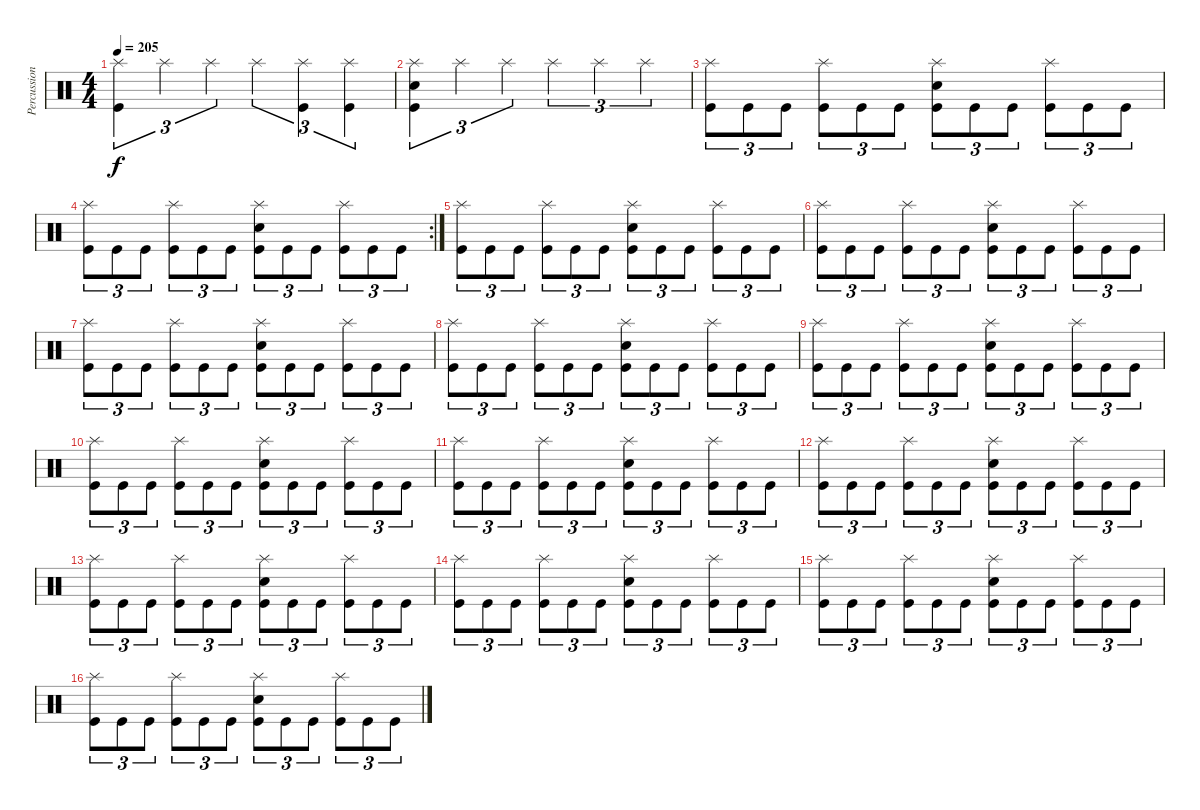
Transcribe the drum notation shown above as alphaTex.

\track ("Percussion" "Percussion") {instrument percussion}
\staff {score}
\articulation defaults
\ts (4 4)
\tempo 205
\clef neutral
\ks c
("Splash (hit)" "Kick (hit)").4{tu (3 2) dy f} "Splash (hit)".4{tu (3 2)} "Splash (hit)".4{tu (3 2)} "Splash (hit)".4{tu (3 2)} ("Splash (hit)" "Kick (hit)").4{tu (3 2)} ("Splash (hit)" "Kick (hit)").4{tu (3 2)} |
("Splash (hit)" "Snare (hit) 2" "Kick (hit)").4{tu (3 2)} "Splash (hit)".4{tu (3 2)} "Splash (hit)".4{tu (3 2)} "Splash (hit)".4{tu (3 2)} "Splash (hit)".4{tu (3 2)} "Splash (hit)".4{tu (3 2)} |
("Splash (hit)" "Kick (hit)").8{tu (3 2)} "Kick (hit)".8{tu (3 2)} "Kick (hit)".8{tu (3 2)} ("Splash (hit)" "Kick (hit)").8{tu (3 2)} "Kick (hit)".8{tu (3 2)} "Kick (hit)".8{tu (3 2)} ("Splash (hit)" "Snare (hit) 2" "Kick (hit)").8{tu (3 2)} "Kick (hit)".8{tu (3 2)} "Kick (hit)".8{tu (3 2)} ("Splash (hit)" "Kick (hit)").8{tu (3 2)} "Kick (hit)".8{tu (3 2)} "Kick (hit)".8{tu (3 2)} |
\rc 2
("Splash (hit)" "Kick (hit)").8{tu (3 2)} "Kick (hit)".8{tu (3 2)} "Kick (hit)".8{tu (3 2)} ("Splash (hit)" "Kick (hit)").8{tu (3 2)} "Kick (hit)".8{tu (3 2)} "Kick (hit)".8{tu (3 2)} ("Splash (hit)" "Snare (hit) 2" "Kick (hit)").8{tu (3 2)} "Kick (hit)".8{tu (3 2)} "Kick (hit)".8{tu (3 2)} ("Splash (hit)" "Kick (hit)").8{tu (3 2)} "Kick (hit)".8{tu (3 2)} "Kick (hit)".8{tu (3 2)} |
("Splash (hit)" "Kick (hit)").8{tu (3 2)} "Kick (hit)".8{tu (3 2)} "Kick (hit)".8{tu (3 2)} ("Splash (hit)" "Kick (hit)").8{tu (3 2)} "Kick (hit)".8{tu (3 2)} "Kick (hit)".8{tu (3 2)} ("Splash (hit)" "Snare (hit) 2" "Kick (hit)").8{tu (3 2)} "Kick (hit)".8{tu (3 2)} "Kick (hit)".8{tu (3 2)} ("Splash (hit)" "Kick (hit)").8{tu (3 2)} "Kick (hit)".8{tu (3 2)} "Kick (hit)".8{tu (3 2)} |
("Splash (hit)" "Kick (hit)").8{tu (3 2)} "Kick (hit)".8{tu (3 2)} "Kick (hit)".8{tu (3 2)} ("Splash (hit)" "Kick (hit)").8{tu (3 2)} "Kick (hit)".8{tu (3 2)} "Kick (hit)".8{tu (3 2)} ("Splash (hit)" "Snare (hit) 2" "Kick (hit)").8{tu (3 2)} "Kick (hit)".8{tu (3 2)} "Kick (hit)".8{tu (3 2)} ("Splash (hit)" "Kick (hit)").8{tu (3 2)} "Kick (hit)".8{tu (3 2)} "Kick (hit)".8{tu (3 2)} |
("Splash (hit)" "Kick (hit)").8{tu (3 2)} "Kick (hit)".8{tu (3 2)} "Kick (hit)".8{tu (3 2)} ("Splash (hit)" "Kick (hit)").8{tu (3 2)} "Kick (hit)".8{tu (3 2)} "Kick (hit)".8{tu (3 2)} ("Splash (hit)" "Snare (hit) 2" "Kick (hit)").8{tu (3 2)} "Kick (hit)".8{tu (3 2)} "Kick (hit)".8{tu (3 2)} ("Splash (hit)" "Kick (hit)").8{tu (3 2)} "Kick (hit)".8{tu (3 2)} "Kick (hit)".8{tu (3 2)} |
("Splash (hit)" "Kick (hit)").8{tu (3 2)} "Kick (hit)".8{tu (3 2)} "Kick (hit)".8{tu (3 2)} ("Splash (hit)" "Kick (hit)").8{tu (3 2)} "Kick (hit)".8{tu (3 2)} "Kick (hit)".8{tu (3 2)} ("Splash (hit)" "Snare (hit) 2" "Kick (hit)").8{tu (3 2)} "Kick (hit)".8{tu (3 2)} "Kick (hit)".8{tu (3 2)} ("Splash (hit)" "Kick (hit)").8{tu (3 2)} "Kick (hit)".8{tu (3 2)} "Kick (hit)".8{tu (3 2)} |
("Splash (hit)" "Kick (hit)").8{tu (3 2)} "Kick (hit)".8{tu (3 2)} "Kick (hit)".8{tu (3 2)} ("Splash (hit)" "Kick (hit)").8{tu (3 2)} "Kick (hit)".8{tu (3 2)} "Kick (hit)".8{tu (3 2)} ("Splash (hit)" "Snare (hit) 2" "Kick (hit)").8{tu (3 2)} "Kick (hit)".8{tu (3 2)} "Kick (hit)".8{tu (3 2)} ("Splash (hit)" "Kick (hit)").8{tu (3 2)} "Kick (hit)".8{tu (3 2)} "Kick (hit)".8{tu (3 2)} |
("Splash (hit)" "Kick (hit)").8{tu (3 2)} "Kick (hit)".8{tu (3 2)} "Kick (hit)".8{tu (3 2)} ("Splash (hit)" "Kick (hit)").8{tu (3 2)} "Kick (hit)".8{tu (3 2)} "Kick (hit)".8{tu (3 2)} ("Splash (hit)" "Snare (hit) 2" "Kick (hit)").8{tu (3 2)} "Kick (hit)".8{tu (3 2)} "Kick (hit)".8{tu (3 2)} ("Splash (hit)" "Kick (hit)").8{tu (3 2)} "Kick (hit)".8{tu (3 2)} "Kick (hit)".8{tu (3 2)} |
("Splash (hit)" "Kick (hit)").8{tu (3 2)} "Kick (hit)".8{tu (3 2)} "Kick (hit)".8{tu (3 2)} ("Splash (hit)" "Kick (hit)").8{tu (3 2)} "Kick (hit)".8{tu (3 2)} "Kick (hit)".8{tu (3 2)} ("Splash (hit)" "Snare (hit) 2" "Kick (hit)").8{tu (3 2)} "Kick (hit)".8{tu (3 2)} "Kick (hit)".8{tu (3 2)} ("Splash (hit)" "Kick (hit)").8{tu (3 2)} "Kick (hit)".8{tu (3 2)} "Kick (hit)".8{tu (3 2)} |
("Splash (hit)" "Kick (hit)").8{tu (3 2)} "Kick (hit)".8{tu (3 2)} "Kick (hit)".8{tu (3 2)} ("Splash (hit)" "Kick (hit)").8{tu (3 2)} "Kick (hit)".8{tu (3 2)} "Kick (hit)".8{tu (3 2)} ("Splash (hit)" "Snare (hit) 2" "Kick (hit)").8{tu (3 2)} "Kick (hit)".8{tu (3 2)} "Kick (hit)".8{tu (3 2)} ("Splash (hit)" "Kick (hit)").8{tu (3 2)} "Kick (hit)".8{tu (3 2)} "Kick (hit)".8{tu (3 2)} |
("Splash (hit)" "Kick (hit)").8{tu (3 2)} "Kick (hit)".8{tu (3 2)} "Kick (hit)".8{tu (3 2)} ("Splash (hit)" "Kick (hit)").8{tu (3 2)} "Kick (hit)".8{tu (3 2)} "Kick (hit)".8{tu (3 2)} ("Splash (hit)" "Snare (hit) 2" "Kick (hit)").8{tu (3 2)} "Kick (hit)".8{tu (3 2)} "Kick (hit)".8{tu (3 2)} ("Splash (hit)" "Kick (hit)").8{tu (3 2)} "Kick (hit)".8{tu (3 2)} "Kick (hit)".8{tu (3 2)} |
("Splash (hit)" "Kick (hit)").8{tu (3 2)} "Kick (hit)".8{tu (3 2)} "Kick (hit)".8{tu (3 2)} ("Splash (hit)" "Kick (hit)").8{tu (3 2)} "Kick (hit)".8{tu (3 2)} "Kick (hit)".8{tu (3 2)} ("Splash (hit)" "Snare (hit) 2" "Kick (hit)").8{tu (3 2)} "Kick (hit)".8{tu (3 2)} "Kick (hit)".8{tu (3 2)} ("Splash (hit)" "Kick (hit)").8{tu (3 2)} "Kick (hit)".8{tu (3 2)} "Kick (hit)".8{tu (3 2)} |
("Splash (hit)" "Kick (hit)").8{tu (3 2)} "Kick (hit)".8{tu (3 2)} "Kick (hit)".8{tu (3 2)} ("Splash (hit)" "Kick (hit)").8{tu (3 2)} "Kick (hit)".8{tu (3 2)} "Kick (hit)".8{tu (3 2)} ("Splash (hit)" "Snare (hit) 2" "Kick (hit)").8{tu (3 2)} "Kick (hit)".8{tu (3 2)} "Kick (hit)".8{tu (3 2)} ("Splash (hit)" "Kick (hit)").8{tu (3 2)} "Kick (hit)".8{tu (3 2)} "Kick (hit)".8{tu (3 2)} |
("Splash (hit)" "Kick (hit)").8{tu (3 2)} "Kick (hit)".8{tu (3 2)} "Kick (hit)".8{tu (3 2)} ("Splash (hit)" "Kick (hit)").8{tu (3 2)} "Kick (hit)".8{tu (3 2)} "Kick (hit)".8{tu (3 2)} ("Splash (hit)" "Snare (hit) 2" "Kick (hit)").8{tu (3 2)} "Kick (hit)".8{tu (3 2)} "Kick (hit)".8{tu (3 2)} ("Splash (hit)" "Kick (hit)").8{tu (3 2)} "Kick (hit)".8{tu (3 2)} "Kick (hit)".8{tu (3 2)}
